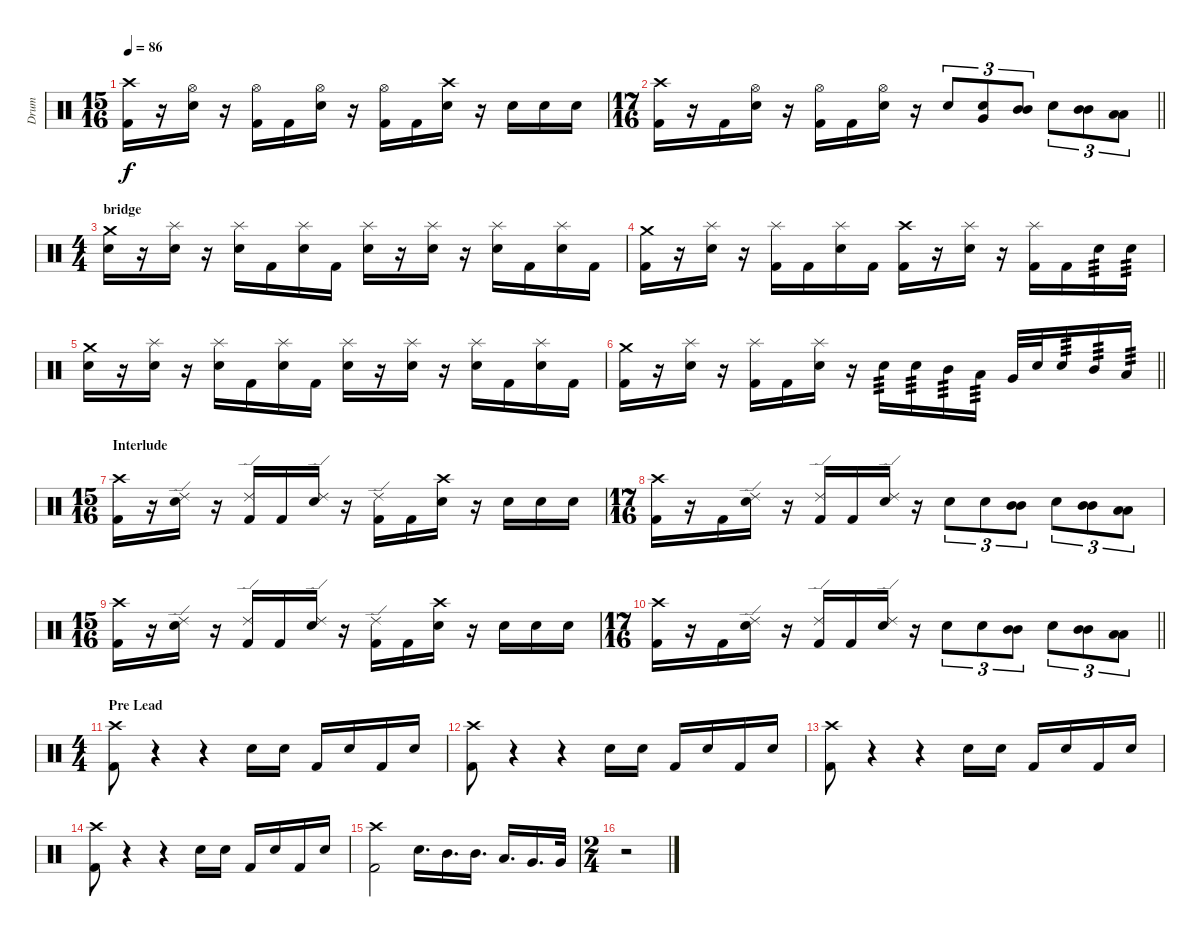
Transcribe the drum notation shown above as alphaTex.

\track ("Drum" "Drum") {instrument percussion}
\staff {score}
\articulation defaults
\ts (15 16)
\tempo 86
\clef neutral
\ks c
("Crash high (hit)" "Kick (hit) 2").16{dy f} r.16 ("Hi-Hat (open)" "Electric Snare (hit)").16 r.16 ("Hi-Hat (open)" "Kick (hit) 2").16 "Kick (hit) 2".16 ("Hi-Hat (open)" "Electric Snare (hit)").16 r.16 ("Hi-Hat (open)" "Kick (hit) 2").16 "Kick (hit) 2".16 ("Crash high (hit)" "Electric Snare (hit)").16 r.16 "Electric Snare (hit)".16 "Electric Snare (hit)".16 "Electric Snare (hit)".16 |
\ts (17 16)
\barLineRight lightlight
("Crash high (hit)" "Kick (hit) 2").16 r.16 "Kick (hit) 2".16 ("Hi-Hat (open)" "Electric Snare (hit)").16 r.16 ("Hi-Hat (open)" "Kick (hit) 2").16 "Kick (hit) 2".16 ("Hi-Hat (open)" "Electric Snare (hit)").16 r.16 "Electric Snare (hit)".8{tu (3 2)} ("Very Low Tom (hit)" "Electric Snare (hit)").8{tu (3 2)} ("Mid Tom (hit)" "Mid Tom (hit)").8{tu (3 2)} "Electric Snare (hit)".8{tu (3 2)} ("Mid Tom (hit)" "Mid Tom (hit)").8{tu (3 2)} ("Low Tom (hit)" "Low Tom (hit)").8{tu (3 2)} |
\ts (4 4)
\section ("" "bridge")
("Crash medium (hit)" "Electric Snare (hit)").16 r.16 ("Splash (hit)" "Electric Snare (hit)").16 r.16 ("Splash (hit)" "Electric Snare (hit)").16 "Kick (hit) 2".16 ("Splash (hit)" "Electric Snare (hit)").16 "Kick (hit) 2".16 ("Splash (hit)" "Electric Snare (hit)").16 r.16 ("Splash (hit)" "Electric Snare (hit)").16 r.16 ("Splash (hit)" "Electric Snare (hit)").16 "Kick (hit) 2".16 ("Splash (hit)" "Electric Snare (hit)").16 "Kick (hit) 2".16 |
("Crash medium (hit)" "Kick (hit) 2").16 r.16 ("Splash (hit)" "Electric Snare (hit)").16 r.16 ("Splash (hit)" "Kick (hit) 2").16 "Kick (hit) 2".16 ("Splash (hit)" "Electric Snare (hit)").16 "Kick (hit) 2".16 ("Crash high (hit)" "Kick (hit) 2").16 r.16 ("Splash (hit)" "Electric Snare (hit)").16 r.16 ("Splash (hit)" "Kick (hit) 2").16 "Kick (hit) 2".16 "Electric Snare (hit)".16{tp 3} "Electric Snare (hit)".16{tp 3} |
("Crash medium (hit)" "Electric Snare (hit)").16 r.16 ("Splash (hit)" "Electric Snare (hit)").16 r.16 ("Splash (hit)" "Electric Snare (hit)").16 "Kick (hit) 2".16 ("Splash (hit)" "Electric Snare (hit)").16 "Kick (hit) 2".16 ("Splash (hit)" "Electric Snare (hit)").16 r.16 ("Splash (hit)" "Electric Snare (hit)").16 r.16 ("Splash (hit)" "Electric Snare (hit)").16 "Kick (hit) 2".16 ("Splash (hit)" "Electric Snare (hit)").16 "Kick (hit) 2".16 |
\barLineRight lightlight
("Crash medium (hit)" "Kick (hit) 2").16 r.16 ("Splash (hit)" "Electric Snare (hit)").16 r.16 ("Splash (hit)" "Kick (hit) 2").16 "Kick (hit) 2".16 ("Splash (hit)" "Electric Snare (hit)").16 r.16 "Electric Snare (hit)".16{tp 3} "Electric Snare (hit)".16{tp 3} "Mid Tom (hit)".16{tp 3} "Low Tom (hit)".16{tp 3} "Very Low Tom (hit)".32 "Electric Snare (hit)".32 "Electric Snare (hit)".16{tp 3} "Mid Tom (hit)".16{tp 3} "Low Tom (hit)".16{tp 3} |
\ts (15 16)
\section ("" "Interlude")
("Crash high (hit)" "Kick (hit) 2").16 r.16 ("Ride (edge) 2" "Electric Snare (hit)").16 r.16 ("Ride (edge) 2" "Kick (hit) 2").16 "Kick (hit) 2".16 ("Ride (edge) 2" "Electric Snare (hit)").16 r.16 ("Ride (edge) 2" "Kick (hit) 2").16 "Kick (hit) 2".16 ("Crash high (hit)" "Electric Snare (hit)").16 r.16 "Electric Snare (hit)".16 "Electric Snare (hit)".16 "Electric Snare (hit)".16 |
\ts (17 16)
("Crash high (hit)" "Kick (hit) 2").16 r.16 "Kick (hit) 2".16 ("Ride (edge) 2" "Electric Snare (hit)").16 r.16 ("Ride (edge) 2" "Kick (hit) 2").16 "Kick (hit) 2".16 ("Ride (edge) 2" "Electric Snare (hit)").16 r.16 "Electric Snare (hit)".8{tu (3 2)} "Electric Snare (hit)".8{tu (3 2)} ("Mid Tom (hit)" "Mid Tom (hit)").8{tu (3 2)} "Electric Snare (hit)".8{tu (3 2)} ("Mid Tom (hit)" "Mid Tom (hit)").8{tu (3 2)} ("Low Tom (hit)" "Low Tom (hit)").8{tu (3 2)} |
\ts (15 16)
("Crash high (hit)" "Kick (hit) 2").16 r.16 ("Ride (edge) 2" "Electric Snare (hit)").16 r.16 ("Ride (edge) 2" "Kick (hit) 2").16 "Kick (hit) 2".16 ("Ride (edge) 2" "Electric Snare (hit)").16 r.16 ("Ride (edge) 2" "Kick (hit) 2").16 "Kick (hit) 2".16 ("Crash high (hit)" "Electric Snare (hit)").16 r.16 "Electric Snare (hit)".16 "Electric Snare (hit)".16 "Electric Snare (hit)".16 |
\ts (17 16)
\barLineRight lightlight
("Crash high (hit)" "Kick (hit) 2").16 r.16 "Kick (hit) 2".16 ("Ride (edge) 2" "Electric Snare (hit)").16 r.16 ("Ride (edge) 2" "Kick (hit) 2").16 "Kick (hit) 2".16 ("Ride (edge) 2" "Electric Snare (hit)").16 r.16 "Electric Snare (hit)".8{tu (3 2)} "Electric Snare (hit)".8{tu (3 2)} ("Mid Tom (hit)" "Mid Tom (hit)").8{tu (3 2)} "Electric Snare (hit)".8{tu (3 2)} ("Mid Tom (hit)" "Mid Tom (hit)").8{tu (3 2)} ("Low Tom (hit)" "Low Tom (hit)").8{tu (3 2)} |
\ts (4 4)
\section ("" "Pre Lead")
("Crash high (hit)" "Kick (hit) 2").8 r.4 r.4 "Electric Snare (hit)".16 "Electric Snare (hit)".16 "Kick (hit) 2".16 "Electric Snare (hit)".16 "Kick (hit) 2".16 "Electric Snare (hit)".16 |
("Crash high (hit)" "Kick (hit) 2").8 r.4 r.4 "Electric Snare (hit)".16 "Electric Snare (hit)".16 "Kick (hit) 2".16 "Electric Snare (hit)".16 "Kick (hit) 2".16 "Electric Snare (hit)".16 |
("Crash high (hit)" "Kick (hit) 2").8 r.4 r.4 "Electric Snare (hit)".16 "Electric Snare (hit)".16 "Kick (hit) 2".16 "Electric Snare (hit)".16 "Kick (hit) 2".16 "Electric Snare (hit)".16 |
("Crash high (hit)" "Kick (hit) 2").8 r.4 r.4 "Electric Snare (hit)".16 "Electric Snare (hit)".16 "Kick (hit) 2".16 "Electric Snare (hit)".16 "Kick (hit) 2".16 "Electric Snare (hit)".16 |
("Crash high (hit)" "Kick (hit) 2").2 "Electric Snare (hit)".16{d} "Mid Tom (hit)".16{d} "Mid Tom (hit)".16{d} "Low Tom (hit)".16{d} "Very Low Tom (hit)".16{d} "Very Low Tom (hit)".32 |
\ts (2 4)
r.2
